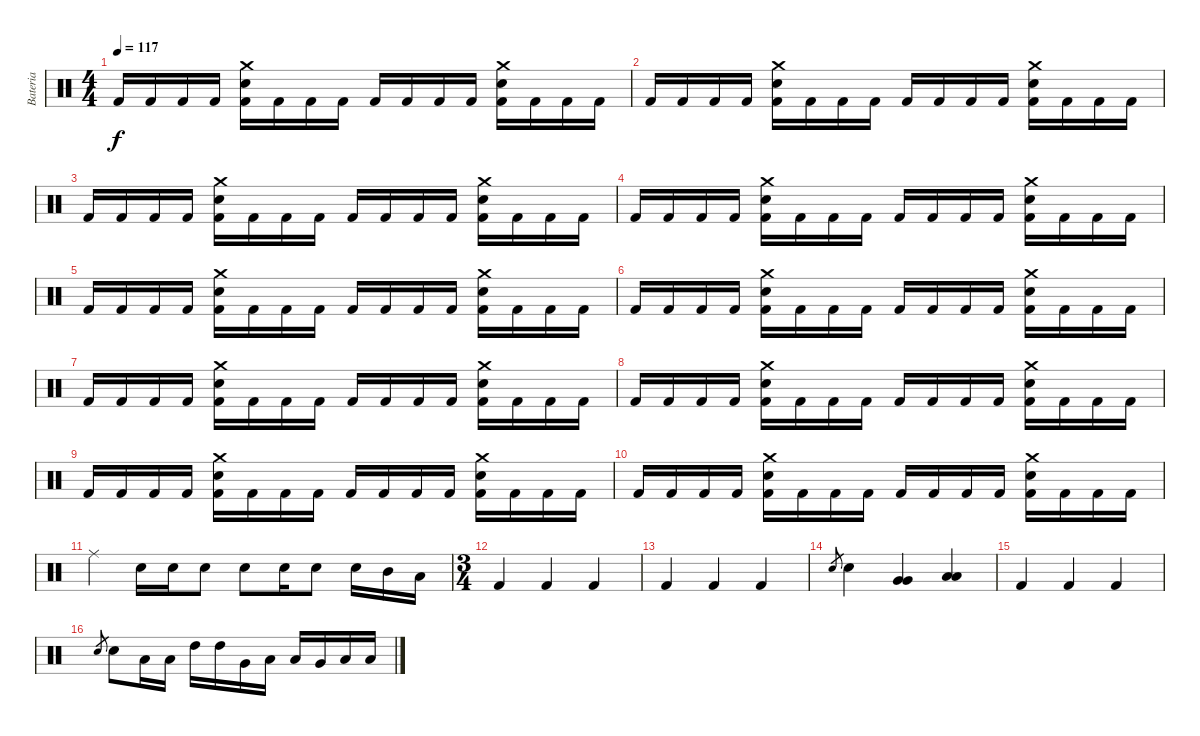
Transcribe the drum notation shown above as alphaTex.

\track ("Bateria" "Bateria") {instrument percussion}
\staff {score}
\articulation defaults
\ts (4 4)
\tempo 117
\clef neutral
\ks c "Kick (hit) 2".16{dy f} "Kick (hit) 2".16 "Kick (hit) 2".16 "Kick (hit) 2".16
("Snare (hit) 2" "Crash medium (hit)" "Kick (hit) 2").16 "Kick (hit) 2".16 "Kick (hit) 2".16 "Kick (hit) 2".16 "Kick (hit) 2".16 "Kick (hit) 2".16 "Kick (hit) 2".16 "Kick (hit) 2".16 ("Snare (hit) 2" "Crash medium (hit)" "Kick (hit) 2").16 "Kick (hit) 2".16 "Kick (hit) 2".16 "Kick (hit) 2".16 |
"Kick (hit) 2".16 "Kick (hit) 2".16 "Kick (hit) 2".16 "Kick (hit) 2".16 ("Snare (hit) 2" "Crash medium (hit)" "Kick (hit) 2").16 "Kick (hit) 2".16 "Kick (hit) 2".16 "Kick (hit) 2".16 "Kick (hit) 2".16 "Kick (hit) 2".16 "Kick (hit) 2".16 "Kick (hit) 2".16 ("Snare (hit) 2" "Crash medium (hit)" "Kick (hit) 2").16 "Kick (hit) 2".16 "Kick (hit) 2".16 "Kick (hit) 2".16 |
"Kick (hit) 2".16 "Kick (hit) 2".16 "Kick (hit) 2".16 "Kick (hit) 2".16 ("Snare (hit) 2" "Crash medium (hit)" "Kick (hit) 2").16 "Kick (hit) 2".16 "Kick (hit) 2".16 "Kick (hit) 2".16 "Kick (hit) 2".16 "Kick (hit) 2".16 "Kick (hit) 2".16 "Kick (hit) 2".16 ("Snare (hit) 2" "Crash medium (hit)" "Kick (hit) 2").16 "Kick (hit) 2".16 "Kick (hit) 2".16 "Kick (hit) 2".16 |
"Kick (hit) 2".16 "Kick (hit) 2".16 "Kick (hit) 2".16 "Kick (hit) 2".16 ("Snare (hit) 2" "Crash medium (hit)" "Kick (hit) 2").16 "Kick (hit) 2".16 "Kick (hit) 2".16 "Kick (hit) 2".16 "Kick (hit) 2".16 "Kick (hit) 2".16 "Kick (hit) 2".16 "Kick (hit) 2".16 ("Snare (hit) 2" "Crash medium (hit)" "Kick (hit) 2").16 "Kick (hit) 2".16 "Kick (hit) 2".16 "Kick (hit) 2".16 |
"Kick (hit) 2".16 "Kick (hit) 2".16 "Kick (hit) 2".16 "Kick (hit) 2".16 ("Snare (hit) 2" "Crash medium (hit)" "Kick (hit) 2").16 "Kick (hit) 2".16 "Kick (hit) 2".16 "Kick (hit) 2".16 "Kick (hit) 2".16 "Kick (hit) 2".16 "Kick (hit) 2".16 "Kick (hit) 2".16 ("Snare (hit) 2" "Crash medium (hit)" "Kick (hit) 2").16 "Kick (hit) 2".16 "Kick (hit) 2".16 "Kick (hit) 2".16 |
"Kick (hit) 2".16 "Kick (hit) 2".16 "Kick (hit) 2".16 "Kick (hit) 2".16 ("Snare (hit) 2" "Crash medium (hit)" "Kick (hit) 2").16 "Kick (hit) 2".16 "Kick (hit) 2".16 "Kick (hit) 2".16 "Kick (hit) 2".16 "Kick (hit) 2".16 "Kick (hit) 2".16 "Kick (hit) 2".16 ("Snare (hit) 2" "Crash medium (hit)" "Kick (hit) 2").16 "Kick (hit) 2".16 "Kick (hit) 2".16 "Kick (hit) 2".16 |
"Kick (hit) 2".16 "Kick (hit) 2".16 "Kick (hit) 2".16 "Kick (hit) 2".16 ("Snare (hit) 2" "Crash medium (hit)" "Kick (hit) 2").16 "Kick (hit) 2".16 "Kick (hit) 2".16 "Kick (hit) 2".16 "Kick (hit) 2".16 "Kick (hit) 2".16 "Kick (hit) 2".16 "Kick (hit) 2".16 ("Snare (hit) 2" "Crash medium (hit)" "Kick (hit) 2").16 "Kick (hit) 2".16 "Kick (hit) 2".16 "Kick (hit) 2".16 |
"Kick (hit) 2".16 "Kick (hit) 2".16 "Kick (hit) 2".16 "Kick (hit) 2".16 ("Snare (hit) 2" "Crash medium (hit)" "Kick (hit) 2").16 "Kick (hit) 2".16 "Kick (hit) 2".16 "Kick (hit) 2".16 "Kick (hit) 2".16 "Kick (hit) 2".16 "Kick (hit) 2".16 "Kick (hit) 2".16 ("Snare (hit) 2" "Crash medium (hit)" "Kick (hit) 2").16 "Kick (hit) 2".16 "Kick (hit) 2".16 "Kick (hit) 2".16 |
"Kick (hit) 2".16 "Kick (hit) 2".16 "Kick (hit) 2".16 "Kick (hit) 2".16 ("Snare (hit) 2" "Crash medium (hit)" "Kick (hit) 2").16 "Kick (hit) 2".16 "Kick (hit) 2".16 "Kick (hit) 2".16 "Kick (hit) 2".16 "Kick (hit) 2".16 "Kick (hit) 2".16 "Kick (hit) 2".16 ("Snare (hit) 2" "Crash medium (hit)" "Kick (hit) 2").16 "Kick (hit) 2".16 "Kick (hit) 2".16 "Kick (hit) 2".16 |
"Kick (hit) 2".16 "Kick (hit) 2".16 "Kick (hit) 2".16 "Kick (hit) 2".16 ("Snare (hit) 2" "Crash medium (hit)" "Kick (hit) 2").16 "Kick (hit) 2".16 "Kick (hit) 2".16 "Kick (hit) 2".16 "Kick (hit) 2".16 "Kick (hit) 2".16 "Kick (hit) 2".16 "Kick (hit) 2".16 ("Snare (hit) 2" "Crash medium (hit)" "Kick (hit) 2").16 "Kick (hit) 2".16 "Kick (hit) 2".16 "Kick (hit) 2".16 |
"Ride (middle)".4 "Snare (hit) 2".16 "Snare (hit) 2".16 "Snare (hit) 2".8 "Snare (hit) 2".8 "Snare (hit) 2".16 "Snare (hit) 2".8 "Snare (hit) 2".16 "Mid Tom (hit)".16 "Low Tom (hit)".16 |
\ts (3 4)
"Kick (hit) 2".4 "Kick (hit) 2".4 "Kick (hit) 2".4 |
"Kick (hit) 2".4 "Kick (hit) 2".4 "Kick (hit) 2".4 |
"Snare (hit) 2".8{gr} "Snare (hit) 2".4 ("Very Low Tom (hit)" "Very Low Tom (hit)").4 ("Low Tom (hit)" "Low Tom (hit)").4 |
"Kick (hit) 2".4 "Kick (hit) 2".4 "Kick (hit) 2".4 |
"Snare (hit) 2".8{gr} "Snare (hit) 2".8 "Low Tom (hit)".16 "Low Tom (hit)".16 "High Tom (hit)".16 "High Tom (hit)".16 "Very Low Tom (hit)".16 "Low Floor Tom (hit)".16 "Low Floor Tom (hit)".16 "Very Low Tom (hit)".16 "Low Floor Tom (hit)".16 "Low Floor Tom (hit)".16
